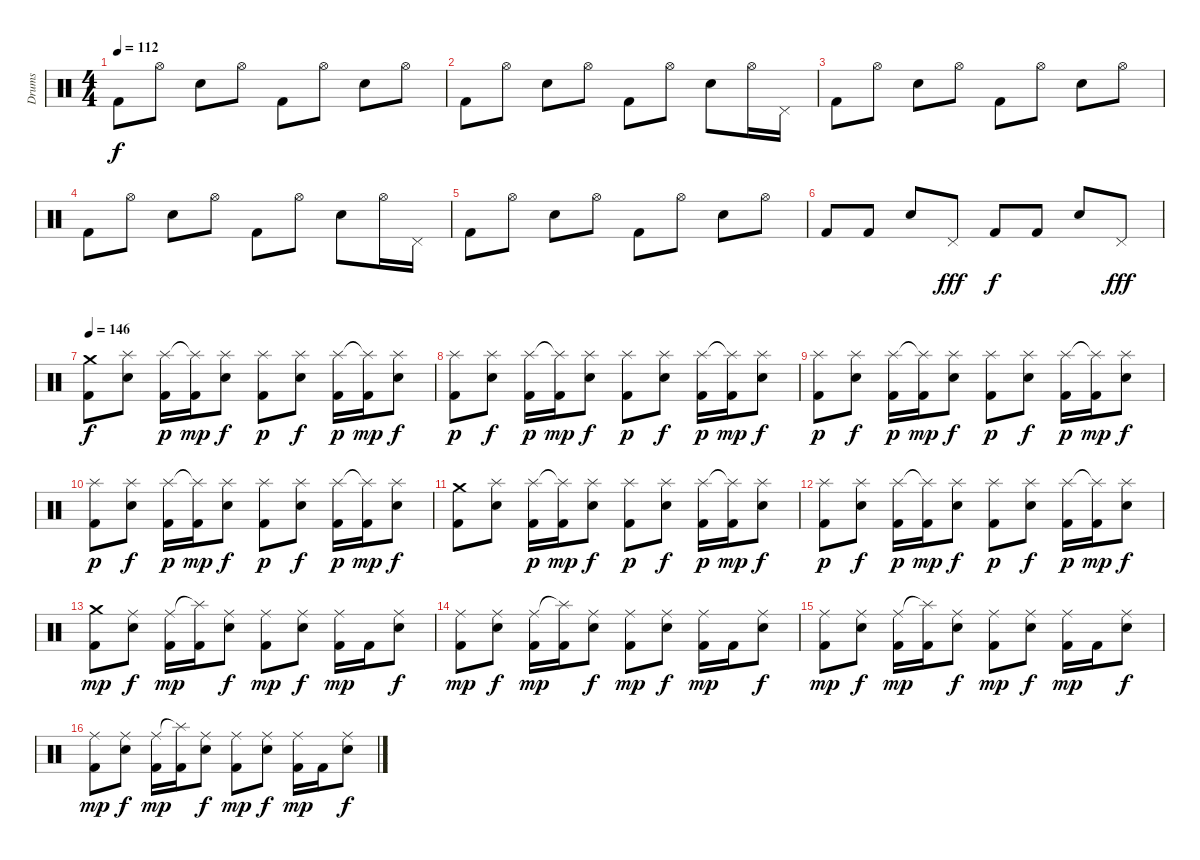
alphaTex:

\track ("Drums" "Drums") {instrument percussion}
\staff {score}
\articulation defaults
\ts (4 4)
\tempo 112
\clef neutral
\ks c "Kick (hit) 2".8{dy f} "Hi-Hat (open)".8 "Snare (hit) 2".8 "Hi-Hat (open)".8 "Kick (hit) 2".8 "Hi-Hat (open)".8 "Snare (hit) 2".8 "Hi-Hat (open)".8
|
"Kick (hit) 2".8 "Hi-Hat (open)".8 "Snare (hit) 2".8 "Hi-Hat (open)".8 "Kick (hit) 2".8 "Hi-Hat (open)".8 "Snare (hit) 2".8 "Hi-Hat (open)".16 "Pedal Hi-Hat (hit)".16 |
"Kick (hit) 2".8 "Hi-Hat (open)".8 "Snare (hit) 2".8 "Hi-Hat (open)".8 "Kick (hit) 2".8 "Hi-Hat (open)".8 "Snare (hit) 2".8 "Hi-Hat (open)".8 |
"Kick (hit) 2".8 "Hi-Hat (open)".8 "Snare (hit) 2".8 "Hi-Hat (open)".8 "Kick (hit) 2".8 "Hi-Hat (open)".8 "Snare (hit) 2".8 "Hi-Hat (open)".16 "Pedal Hi-Hat (hit)".16 |
"Kick (hit) 2".8 "Hi-Hat (open)".8 "Snare (hit) 2".8 "Hi-Hat (open)".8 "Kick (hit) 2".8 "Hi-Hat (open)".8 "Snare (hit) 2".8 "Hi-Hat (open)".8 |
"Kick (hit) 2".8 "Kick (hit) 2".8 "Snare (hit) 2".8 "Pedal Hi-Hat (hit)".8{dy fff} "Kick (hit) 2".8{dy f} "Kick (hit) 2".8 "Snare (hit) 2".8 "Pedal Hi-Hat (hit)".8{dy fff} |
\tempo 146
("Crash medium (hit)" "Kick (hit) 2").8{dy f} ("Splash (hit)" "Snare (hit) 2").8 ("Splash (hit)" "Kick (hit) 2").16{dy p} ("Splash (hit)"{t} "Kick (hit) 2").16{dy mp} ("Splash (hit)" "Snare (hit) 2").8{dy f} ("Splash (hit)" "Kick (hit) 2").8{dy p} ("Splash (hit)" "Snare (hit) 2").8{dy f} ("Splash (hit)" "Kick (hit) 2").16{dy p} ("Splash (hit)"{t} "Kick (hit) 2").16{dy mp} ("Splash (hit)" "Snare (hit) 2").8{dy f} |
("Splash (hit)" "Kick (hit) 2").8{dy p} ("Splash (hit)" "Snare (hit) 2").8{dy f} ("Splash (hit)" "Kick (hit) 2").16{dy p} ("Splash (hit)"{t} "Kick (hit) 2").16{dy mp} ("Splash (hit)" "Snare (hit) 2").8{dy f} ("Splash (hit)" "Kick (hit) 2").8{dy p} ("Splash (hit)" "Snare (hit) 2").8{dy f} ("Splash (hit)" "Kick (hit) 2").16{dy p} ("Splash (hit)"{t} "Kick (hit) 2").16{dy mp} ("Splash (hit)" "Snare (hit) 2").8{dy f} |
("Splash (hit)" "Kick (hit) 2").8{dy p} ("Splash (hit)" "Snare (hit) 2").8{dy f} ("Splash (hit)" "Kick (hit) 2").16{dy p} ("Splash (hit)"{t} "Kick (hit) 2").16{dy mp} ("Splash (hit)" "Snare (hit) 2").8{dy f} ("Splash (hit)" "Kick (hit) 2").8{dy p} ("Splash (hit)" "Snare (hit) 2").8{dy f} ("Splash (hit)" "Kick (hit) 2").16{dy p} ("Splash (hit)"{t} "Kick (hit) 2").16{dy mp} ("Splash (hit)" "Snare (hit) 2").8{dy f} |
("Splash (hit)" "Kick (hit) 2").8{dy p} ("Splash (hit)" "Snare (hit) 2").8{dy f} ("Splash (hit)" "Kick (hit) 2").16{dy p} ("Splash (hit)"{t} "Kick (hit) 2").16{dy mp} ("Splash (hit)" "Snare (hit) 2").8{dy f} ("Splash (hit)" "Kick (hit) 2").8{dy p} ("Splash (hit)" "Snare (hit) 2").8{dy f} ("Splash (hit)" "Kick (hit) 2").16{dy p} ("Splash (hit)"{t} "Kick (hit) 2").16{dy mp} ("Splash (hit)" "Snare (hit) 2").8{dy f} |
("Crash medium (hit)" "Kick (hit) 2").8 ("Splash (hit)" "Snare (hit) 2").8 ("Splash (hit)" "Kick (hit) 2").16{dy p} ("Splash (hit)"{t} "Kick (hit) 2").16{dy mp} ("Splash (hit)" "Snare (hit) 2").8{dy f} ("Splash (hit)" "Kick (hit) 2").8{dy p} ("Splash (hit)" "Snare (hit) 2").8{dy f} ("Splash (hit)" "Kick (hit) 2").16{dy p} ("Splash (hit)"{t} "Kick (hit) 2").16{dy mp} ("Splash (hit)" "Snare (hit) 2").8{dy f} |
("Splash (hit)" "Kick (hit) 2").8{dy p} ("Splash (hit)" "Snare (hit) 2").8{dy f} ("Splash (hit)" "Kick (hit) 2").16{dy p} ("Splash (hit)"{t} "Kick (hit) 2").16{dy mp} ("Splash (hit)" "Snare (hit) 2").8{dy f} ("Splash (hit)" "Kick (hit) 2").8{dy p} ("Splash (hit)" "Snare (hit) 2").8{dy f} ("Splash (hit)" "Kick (hit) 2").16{dy p} ("Splash (hit)"{t} "Kick (hit) 2").16{dy mp} ("Splash (hit)" "Snare (hit) 2").8{dy f} |
("Crash medium (hit)" "Kick (hit) 2").8{dy mp} ("Ride (middle)" "Snare (hit) 2").8{dy f} ("Ride (middle)" "Kick (hit) 2").16{dy mp} ("Splash (hit)"{t} "Kick (hit) 2").16 ("Ride (middle)" "Snare (hit) 2").8{dy f} ("Ride (middle)" "Kick (hit) 2").8{dy mp} ("Ride (middle)" "Snare (hit) 2").8{dy f} ("Ride (middle)" "Kick (hit) 2").16{dy mp} "Kick (hit) 2".16 ("Ride (middle)" "Snare (hit) 2").8{dy f} |
("Ride (middle)" "Kick (hit) 2").8{dy mp} ("Ride (middle)" "Snare (hit) 2").8{dy f} ("Ride (middle)" "Kick (hit) 2").16{dy mp} ("Splash (hit)"{t} "Kick (hit) 2").16 ("Ride (middle)" "Snare (hit) 2").8{dy f} ("Ride (middle)" "Kick (hit) 2").8{dy mp} ("Ride (middle)" "Snare (hit) 2").8{dy f} ("Ride (middle)" "Kick (hit) 2").16{dy mp} "Kick (hit) 2".16 ("Ride (middle)" "Snare (hit) 2").8{dy f} |
("Ride (middle)" "Kick (hit) 2").8{dy mp} ("Ride (middle)" "Snare (hit) 2").8{dy f} ("Ride (middle)" "Kick (hit) 2").16{dy mp} ("Splash (hit)"{t} "Kick (hit) 2").16 ("Ride (middle)" "Snare (hit) 2").8{dy f} ("Ride (middle)" "Kick (hit) 2").8{dy mp} ("Ride (middle)" "Snare (hit) 2").8{dy f} ("Ride (middle)" "Kick (hit) 2").16{dy mp} "Kick (hit) 2".16 ("Ride (middle)" "Snare (hit) 2").8{dy f} |
("Ride (middle)" "Kick (hit) 2").8{dy mp} ("Ride (middle)" "Snare (hit) 2").8{dy f} ("Ride (middle)" "Kick (hit) 2").16{dy mp} ("Splash (hit)"{t} "Kick (hit) 2").16 ("Ride (middle)" "Snare (hit) 2").8{dy f} ("Ride (middle)" "Kick (hit) 2").8{dy mp} ("Ride (middle)" "Snare (hit) 2").8{dy f} ("Ride (middle)" "Kick (hit) 2").16{dy mp} "Kick (hit) 2".16 ("Ride (middle)" "Snare (hit) 2").8{dy f}
